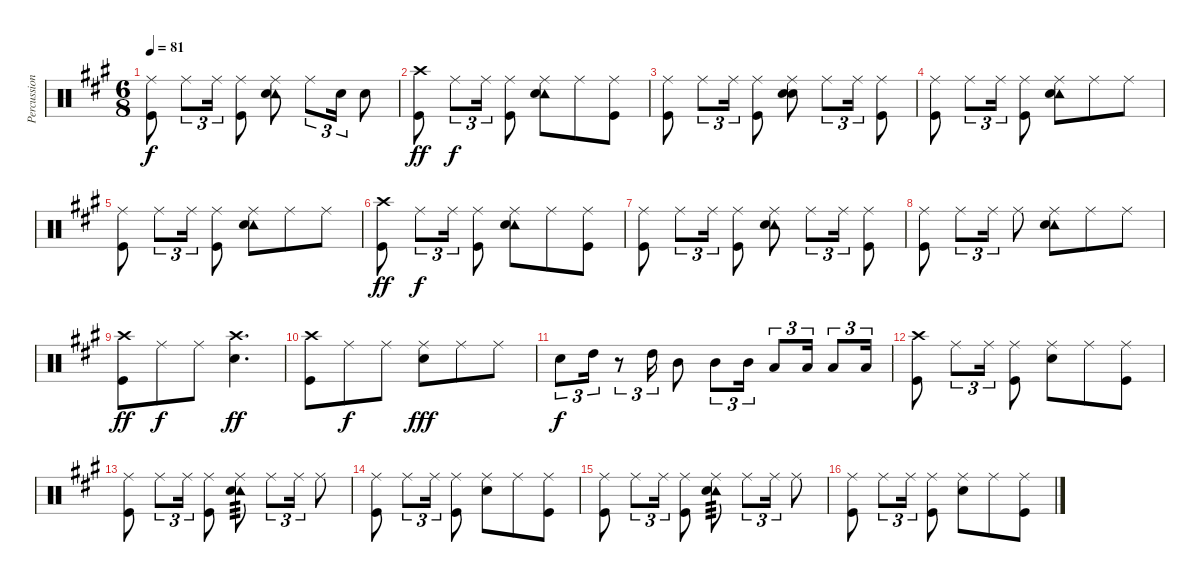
\track ("Percussion" "Percussion") {instrument percussion}
\staff {score}
\articulation defaults
\ts (6 8)
\tempo 81
\clef neutral
\ks a
("Ride (middle)" "Kick (hit)").8{dy f} "Ride (middle)".8{tu (3 2)} "Ride (middle)".16{tu (3 2)} ("Ride (middle)" "Kick (hit)").8 ("Ride (middle)" "Tambourine (hit)" "Snare (hit) 2").8 "Ride (middle)".8{tu (3 2)} "Snare (hit) 2".16{tu (3 2)} "Snare (hit) 2".8 |
("Crash high (hit)" "Kick (hit)").8{dy ff} "Ride (middle)".8{tu (3 2) dy f} "Ride (middle)".16{tu (3 2)} ("Ride (middle)" "Kick (hit)").8 ("Ride (middle)" "Tambourine (hit)" "Snare (hit) 2").8 "Ride (middle)".8 ("Ride (middle)" "Kick (hit)").8 |
("Ride (middle)" "Kick (hit)").8 "Ride (middle)".8{tu (3 2)} "Ride (middle)".16{tu (3 2)} ("Ride (middle)" "Kick (hit)").8 ("Ride (middle)" "Snare (hit)" "Snare (hit) 2").8 "Ride (middle)".8{tu (3 2)} "Ride (middle)".16{tu (3 2)} ("Ride (middle)" "Kick (hit)").8 |
("Ride (middle)" "Kick (hit)").8 "Ride (middle)".8{tu (3 2)} "Ride (middle)".16{tu (3 2)} ("Ride (middle)" "Kick (hit)").8 ("Ride (middle)" "Tambourine (hit)" "Snare (hit) 2").8 "Ride (middle)".8 "Ride (middle)".8 |
("Ride (middle)" "Kick (hit)").8 "Ride (middle)".8{tu (3 2)} "Ride (middle)".16{tu (3 2)} ("Ride (middle)" "Kick (hit)").8 ("Ride (middle)" "Tambourine (hit)" "Snare (hit) 2").8 "Ride (middle)".8 "Ride (middle)".8 |
("Crash high (hit)" "Kick (hit)").8{dy ff} "Ride (middle)".8{tu (3 2) dy f} "Ride (middle)".16{tu (3 2)} ("Ride (middle)" "Kick (hit)").8 ("Ride (middle)" "Tambourine (hit)" "Snare (hit) 2").8 "Ride (middle)".8 ("Ride (middle)" "Kick (hit)").8 |
("Ride (middle)" "Kick (hit)").8 "Ride (middle)".8{tu (3 2)} "Ride (middle)".16{tu (3 2)} ("Ride (middle)" "Kick (hit)").8 ("Ride (middle)" "Tambourine (hit)" "Snare (hit) 2").8 "Ride (middle)".8{tu (3 2)} "Ride (middle)".16{tu (3 2)} ("Ride (middle)" "Kick (hit)").8 |
("Ride (middle)" "Kick (hit)").8 "Ride (middle)".8{tu (3 2)} "Ride (middle)".16{tu (3 2)} "Ride (middle)".8 ("Ride (middle)" "Tambourine (hit)" "Snare (hit) 2").8 "Ride (middle)".8 "Ride (middle)".8 |
("Crash high (hit)" "Kick (hit)").8{dy ff} "Ride (middle)".8{dy f} "Ride (middle)".8 ("Crash high (hit)" "Snare (hit) 2").4{d dy ff} |
("Crash high (hit)" "Kick (hit)").8 "Ride (middle)".8{dy f} "Ride (middle)".8 ("Ride (middle)" "Snare (hit) 2").8{dy fff} "Ride (middle)".8 "Ride (middle)".8 |
"Snare (hit) 2".8{tu (3 2) dy f} "High Tom (hit)".16{tu (3 2)} r.8{tu (3 2)} "High Tom (hit)".16{tu (3 2)} "Mid Tom (hit)".8 "Mid Tom (hit)".8{tu (3 2)} "Mid Tom (hit)".16{tu (3 2)} "Low Tom (hit)".8{tu (3 2)} "Low Tom (hit)".16{tu (3 2)} "Low Floor Tom (hit)".8{tu (3 2)} "Low Floor Tom (hit)".16{tu (3 2)} |
("Crash high (hit)" "Kick (hit)").8 "Ride (middle)".8{tu (3 2)} "Ride (middle)".16{tu (3 2)} ("Ride (middle)" "Kick (hit)").8 ("Ride (middle)" "Snare (hit) 2").8 "Ride (middle)".8 ("Ride (middle)" "Kick (hit)").8 |
("Ride (middle)" "Kick (hit)").8 "Ride (middle)".8{tu (3 2)} "Ride (middle)".16{tu (3 2)} ("Ride (middle)" "Kick (hit)").8 ("Ride (middle)" "Tambourine (hit)" "Snare (hit) 2").8{tp 3} "Ride (middle)".8{tu (3 2)} "Ride (middle)".16{tu (3 2)} "Ride (middle)".8 |
("Ride (middle)" "Kick (hit)").8 "Ride (middle)".8{tu (3 2)} "Ride (middle)".16{tu (3 2)} ("Ride (middle)" "Kick (hit)").8 ("Ride (middle)" "Snare (hit) 2").8 "Ride (middle)".8 ("Ride (middle)" "Kick (hit)").8 |
("Ride (middle)" "Kick (hit)").8 "Ride (middle)".8{tu (3 2)} "Ride (middle)".16{tu (3 2)} ("Ride (middle)" "Kick (hit)").8 ("Ride (middle)" "Tambourine (hit)" "Snare (hit) 2").8{tp 3} "Ride (middle)".8{tu (3 2)} "Ride (middle)".16{tu (3 2)} "Ride (middle)".8 |
("Ride (middle)" "Kick (hit)").8 "Ride (middle)".8{tu (3 2)} "Ride (middle)".16{tu (3 2)} ("Ride (middle)" "Kick (hit)").8 ("Ride (middle)" "Snare (hit) 2").8 "Ride (middle)".8 ("Ride (middle)" "Kick (hit)").8
